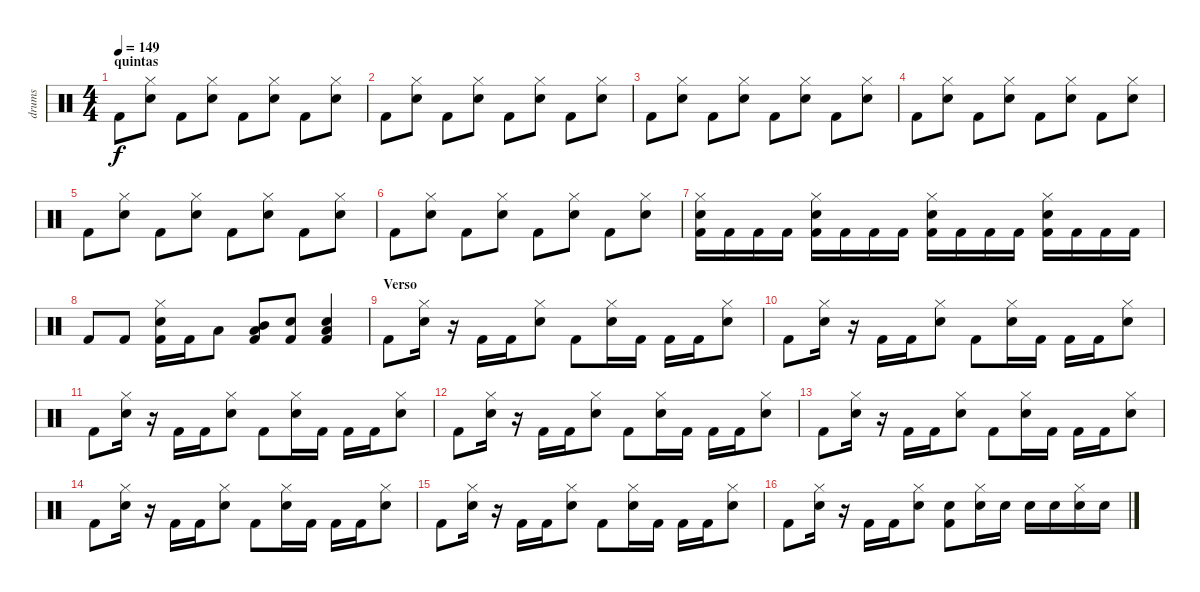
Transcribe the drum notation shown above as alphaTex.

\track ("drums" "drums") {instrument percussion}
\staff {score}
\articulation defaults
\ts (4 4)
\section ("" "quintas")
\tempo 149
\clef neutral
\ks c "Kick (hit) 2".8{dy f}
("Electric Snare (hit)" "Hi-Hat (closed)").8 "Kick (hit) 2".8 ("Electric Snare (hit)" "Hi-Hat (closed)").8 "Kick (hit) 2".8 ("Electric Snare (hit)" "Hi-Hat (closed)").8 "Kick (hit) 2".8 ("Electric Snare (hit)" "Hi-Hat (closed)").8 |
"Kick (hit) 2".8 ("Electric Snare (hit)" "Hi-Hat (closed)").8 "Kick (hit) 2".8 ("Electric Snare (hit)" "Hi-Hat (closed)").8 "Kick (hit) 2".8 ("Electric Snare (hit)" "Hi-Hat (closed)").8 "Kick (hit) 2".8 ("Electric Snare (hit)" "Hi-Hat (closed)").8 |
"Kick (hit) 2".8 ("Electric Snare (hit)" "Hi-Hat (closed)").8 "Kick (hit) 2".8 ("Electric Snare (hit)" "Hi-Hat (closed)").8 "Kick (hit) 2".8 ("Electric Snare (hit)" "Hi-Hat (closed)").8 "Kick (hit) 2".8 ("Electric Snare (hit)" "Hi-Hat (closed)").8 |
"Kick (hit) 2".8 ("Electric Snare (hit)" "Hi-Hat (closed)").8 "Kick (hit) 2".8 ("Electric Snare (hit)" "Hi-Hat (closed)").8 "Kick (hit) 2".8 ("Electric Snare (hit)" "Hi-Hat (closed)").8 "Kick (hit) 2".8 ("Electric Snare (hit)" "Hi-Hat (closed)").8 |
"Kick (hit) 2".8 ("Electric Snare (hit)" "Hi-Hat (closed)").8 "Kick (hit) 2".8 ("Electric Snare (hit)" "Hi-Hat (closed)").8 "Kick (hit) 2".8 ("Electric Snare (hit)" "Hi-Hat (closed)").8 "Kick (hit) 2".8 ("Electric Snare (hit)" "Hi-Hat (closed)").8 |
"Kick (hit) 2".8 ("Electric Snare (hit)" "Hi-Hat (closed)").8 "Kick (hit) 2".8 ("Electric Snare (hit)" "Hi-Hat (closed)").8 "Kick (hit) 2".8 ("Electric Snare (hit)" "Hi-Hat (closed)").8 "Kick (hit) 2".8 ("Electric Snare (hit)" "Hi-Hat (closed)").8 |
("Kick (hit) 2" "Electric Snare (hit)" "Hi-Hat (closed)").16 "Kick (hit) 2".16 "Kick (hit) 2".16 "Kick (hit) 2".16 ("Kick (hit) 2" "Electric Snare (hit)" "Hi-Hat (closed)").16 "Kick (hit) 2".16 "Kick (hit) 2".16 "Kick (hit) 2".16 ("Kick (hit) 2" "Electric Snare (hit)" "Hi-Hat (closed)").16 "Kick (hit) 2".16 "Kick (hit) 2".16 "Kick (hit) 2".16 ("Kick (hit) 2" "Electric Snare (hit)" "Hi-Hat (closed)").16 "Kick (hit) 2".16 "Kick (hit) 2".16 "Kick (hit) 2".16 |
"Kick (hit) 2".8 "Kick (hit) 2".8 ("Kick (hit) 2" "Electric Snare (hit)" "Hi-Hat (closed)").16 "Kick (hit) 2".16 "Low Tom (hit)".8 ("Kick (hit) 2" "Low Tom (hit)" "Mid Tom (hit)").8 ("Kick (hit) 2" "Electric Snare (hit)").8 ("Kick (hit) 2" "Electric Snare (hit)" "Low Tom (hit)").4 |
\section ("" "Verso")
"Kick (hit) 2".8 ("Electric Snare (hit)" "Hi-Hat (closed)").16 r.16 "Kick (hit) 2".16 "Kick (hit) 2".16 ("Electric Snare (hit)" "Hi-Hat (closed)").8 "Kick (hit) 2".8 ("Electric Snare (hit)" "Hi-Hat (closed)").16 "Kick (hit) 2".16 "Kick (hit) 2".16 "Kick (hit) 2".16 ("Electric Snare (hit)" "Hi-Hat (closed)").8 |
"Kick (hit) 2".8 ("Electric Snare (hit)" "Hi-Hat (closed)").16 r.16 "Kick (hit) 2".16 "Kick (hit) 2".16 ("Electric Snare (hit)" "Hi-Hat (closed)").8 "Kick (hit) 2".8 ("Electric Snare (hit)" "Hi-Hat (closed)").16 "Kick (hit) 2".16 "Kick (hit) 2".16 "Kick (hit) 2".16 ("Electric Snare (hit)" "Hi-Hat (closed)").8 |
"Kick (hit) 2".8 ("Electric Snare (hit)" "Hi-Hat (closed)").16 r.16 "Kick (hit) 2".16 "Kick (hit) 2".16 ("Electric Snare (hit)" "Hi-Hat (closed)").8 "Kick (hit) 2".8 ("Electric Snare (hit)" "Hi-Hat (closed)").16 "Kick (hit) 2".16 "Kick (hit) 2".16 "Kick (hit) 2".16 ("Electric Snare (hit)" "Hi-Hat (closed)").8 |
"Kick (hit) 2".8 ("Electric Snare (hit)" "Hi-Hat (closed)").16 r.16 "Kick (hit) 2".16 "Kick (hit) 2".16 ("Electric Snare (hit)" "Hi-Hat (closed)").8 "Kick (hit) 2".8 ("Electric Snare (hit)" "Hi-Hat (closed)").16 "Kick (hit) 2".16 "Kick (hit) 2".16 "Kick (hit) 2".16 ("Electric Snare (hit)" "Hi-Hat (closed)").8 |
"Kick (hit) 2".8 ("Electric Snare (hit)" "Hi-Hat (closed)").16 r.16 "Kick (hit) 2".16 "Kick (hit) 2".16 ("Electric Snare (hit)" "Hi-Hat (closed)").8 "Kick (hit) 2".8 ("Electric Snare (hit)" "Hi-Hat (closed)").16 "Kick (hit) 2".16 "Kick (hit) 2".16 "Kick (hit) 2".16 ("Electric Snare (hit)" "Hi-Hat (closed)").8 |
"Kick (hit) 2".8 ("Electric Snare (hit)" "Hi-Hat (closed)").16 r.16 "Kick (hit) 2".16 "Kick (hit) 2".16 ("Electric Snare (hit)" "Hi-Hat (closed)").8 "Kick (hit) 2".8 ("Electric Snare (hit)" "Hi-Hat (closed)").16 "Kick (hit) 2".16 "Kick (hit) 2".16 "Kick (hit) 2".16 ("Electric Snare (hit)" "Hi-Hat (closed)").8 |
"Kick (hit) 2".8 ("Electric Snare (hit)" "Hi-Hat (closed)").16 r.16 "Kick (hit) 2".16 "Kick (hit) 2".16 ("Electric Snare (hit)" "Hi-Hat (closed)").8 "Kick (hit) 2".8 ("Electric Snare (hit)" "Hi-Hat (closed)").16 "Kick (hit) 2".16 "Kick (hit) 2".16 "Kick (hit) 2".16 ("Electric Snare (hit)" "Hi-Hat (closed)").8 |
"Kick (hit) 2".8 ("Electric Snare (hit)" "Hi-Hat (closed)").16 r.16 "Kick (hit) 2".16 "Kick (hit) 2".16 ("Electric Snare (hit)" "Hi-Hat (closed)").8 ("Kick (hit) 2" "Electric Snare (hit)").8 ("Electric Snare (hit)" "Hi-Hat (closed)").16 "Electric Snare (hit)".16 "Electric Snare (hit)".16 "Electric Snare (hit)".16 ("Electric Snare (hit)" "Hi-Hat (closed)").16 "Electric Snare (hit)".16
